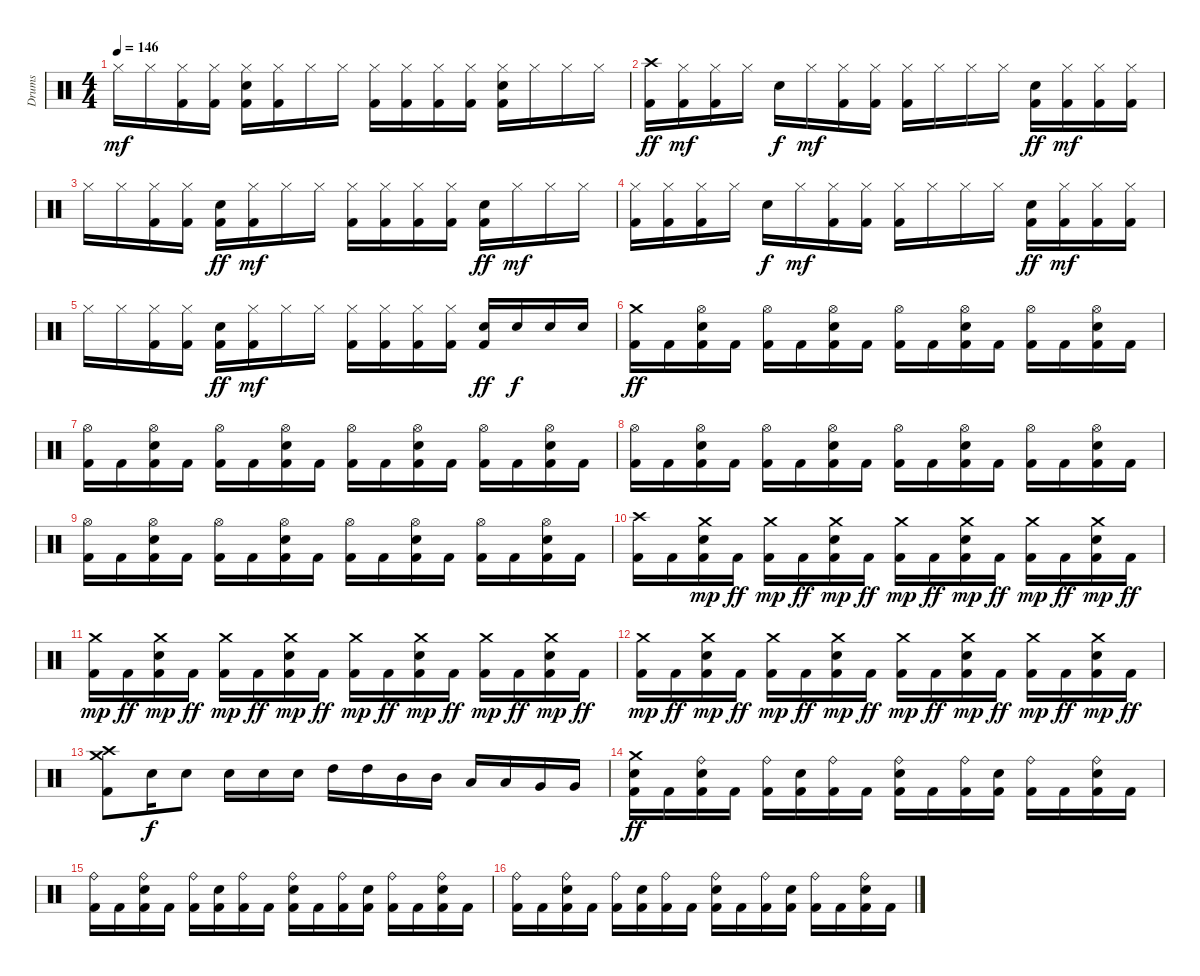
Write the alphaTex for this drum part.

\track ("Drums" "Drums") {instrument percussion}
\staff {score}
\articulation defaults
\ts (4 4)
\tempo 146
\clef neutral
\ks c "Hi-Hat (closed)".16{dy mf} "Hi-Hat (closed)".16
("Kick (hit) 2" "Hi-Hat (closed)").16 ("Kick (hit) 2" "Hi-Hat (closed)").16 ("Kick (hit) 2" "Electric Snare (hit)" "Hi-Hat (closed)").16 ("Kick (hit) 2" "Hi-Hat (closed)").16 "Hi-Hat (closed)".16 "Hi-Hat (closed)".16 ("Kick (hit) 2" "Hi-Hat (closed)").16 ("Kick (hit) 2" "Hi-Hat (closed)").16 ("Kick (hit) 2" "Hi-Hat (closed)").16 ("Kick (hit) 2" "Hi-Hat (closed)").16 ("Kick (hit) 2" "Electric Snare (hit)" "Hi-Hat (closed)").16 "Hi-Hat (closed)".16 "Hi-Hat (closed)".16 "Hi-Hat (closed)".16 |
("Kick (hit) 2" "Crash high (hit)").16{dy ff} ("Kick (hit) 2" "Hi-Hat (closed)").16{dy mf} ("Kick (hit) 2" "Hi-Hat (closed)").16 "Hi-Hat (closed)".16 "Electric Snare (hit)".16{dy f} "Hi-Hat (closed)".16{dy mf} ("Kick (hit) 2" "Hi-Hat (closed)").16 ("Kick (hit) 2" "Hi-Hat (closed)").16 ("Kick (hit) 2" "Hi-Hat (closed)").16 "Hi-Hat (closed)".16 "Hi-Hat (closed)".16 "Hi-Hat (closed)".16 ("Kick (hit) 2" "Electric Snare (hit)").16{dy ff} ("Kick (hit) 2" "Hi-Hat (closed)").16{dy mf} ("Kick (hit) 2" "Hi-Hat (closed)").16 ("Kick (hit) 2" "Hi-Hat (closed)").16 |
"Hi-Hat (closed)".16 "Hi-Hat (closed)".16 ("Kick (hit) 2" "Hi-Hat (closed)").16 ("Kick (hit) 2" "Hi-Hat (closed)").16 ("Kick (hit) 2" "Electric Snare (hit)").16{dy ff} ("Kick (hit) 2" "Hi-Hat (closed)").16{dy mf} "Hi-Hat (closed)".16 "Hi-Hat (closed)".16 ("Kick (hit) 2" "Hi-Hat (closed)").16 ("Kick (hit) 2" "Hi-Hat (closed)").16 ("Kick (hit) 2" "Hi-Hat (closed)").16 ("Kick (hit) 2" "Hi-Hat (closed)").16 ("Kick (hit) 2" "Electric Snare (hit)").16{dy ff} "Hi-Hat (closed)".16{dy mf} "Hi-Hat (closed)".16 "Hi-Hat (closed)".16 |
("Kick (hit) 2" "Hi-Hat (closed)").16 ("Kick (hit) 2" "Hi-Hat (closed)").16 ("Kick (hit) 2" "Hi-Hat (closed)").16 "Hi-Hat (closed)".16 "Electric Snare (hit)".16{dy f} "Hi-Hat (closed)".16{dy mf} ("Kick (hit) 2" "Hi-Hat (closed)").16 ("Kick (hit) 2" "Hi-Hat (closed)").16 ("Kick (hit) 2" "Hi-Hat (closed)").16 "Hi-Hat (closed)".16 "Hi-Hat (closed)".16 "Hi-Hat (closed)".16 ("Kick (hit) 2" "Electric Snare (hit)").16{dy ff} ("Kick (hit) 2" "Hi-Hat (closed)").16{dy mf} ("Kick (hit) 2" "Hi-Hat (closed)").16 ("Kick (hit) 2" "Hi-Hat (closed)").16 |
"Hi-Hat (closed)".16 "Hi-Hat (closed)".16 ("Kick (hit) 2" "Hi-Hat (closed)").16 ("Kick (hit) 2" "Hi-Hat (closed)").16 ("Kick (hit) 2" "Electric Snare (hit)").16{dy ff} ("Kick (hit) 2" "Hi-Hat (closed)").16{dy mf} "Hi-Hat (closed)".16 "Hi-Hat (closed)".16 ("Kick (hit) 2" "Hi-Hat (closed)").16 ("Kick (hit) 2" "Hi-Hat (closed)").16 ("Kick (hit) 2" "Hi-Hat (closed)").16 ("Kick (hit) 2" "Hi-Hat (closed)").16 ("Kick (hit) 2" "Electric Snare (hit)").16{dy ff} "Electric Snare (hit)".16{dy f} "Electric Snare (hit)".16 "Electric Snare (hit)".16 |
("Kick (hit) 2" "Crash medium (hit)").16{dy ff} "Kick (hit) 2".16 ("Kick (hit) 2" "Electric Snare (hit)" "Hi-Hat (open)").16 "Kick (hit) 2".16 ("Kick (hit) 2" "Hi-Hat (open)").16 "Kick (hit) 2".16 ("Kick (hit) 2" "Electric Snare (hit)" "Hi-Hat (open)").16 "Kick (hit) 2".16 ("Kick (hit) 2" "Hi-Hat (open)").16 "Kick (hit) 2".16 ("Kick (hit) 2" "Electric Snare (hit)" "Hi-Hat (open)").16 "Kick (hit) 2".16 ("Kick (hit) 2" "Hi-Hat (open)").16 "Kick (hit) 2".16 ("Kick (hit) 2" "Electric Snare (hit)" "Hi-Hat (open)").16 "Kick (hit) 2".16 |
("Kick (hit) 2" "Hi-Hat (open)").16 "Kick (hit) 2".16 ("Kick (hit) 2" "Electric Snare (hit)" "Hi-Hat (open)").16 "Kick (hit) 2".16 ("Kick (hit) 2" "Hi-Hat (open)").16 "Kick (hit) 2".16 ("Kick (hit) 2" "Electric Snare (hit)" "Hi-Hat (open)").16 "Kick (hit) 2".16 ("Kick (hit) 2" "Hi-Hat (open)").16 "Kick (hit) 2".16 ("Kick (hit) 2" "Electric Snare (hit)" "Hi-Hat (open)").16 "Kick (hit) 2".16 ("Kick (hit) 2" "Hi-Hat (open)").16 "Kick (hit) 2".16 ("Kick (hit) 2" "Electric Snare (hit)" "Hi-Hat (open)").16 "Kick (hit) 2".16 |
("Kick (hit) 2" "Hi-Hat (open)").16 "Kick (hit) 2".16 ("Kick (hit) 2" "Electric Snare (hit)" "Hi-Hat (open)").16 "Kick (hit) 2".16 ("Kick (hit) 2" "Hi-Hat (open)").16 "Kick (hit) 2".16 ("Kick (hit) 2" "Electric Snare (hit)" "Hi-Hat (open)").16 "Kick (hit) 2".16 ("Kick (hit) 2" "Hi-Hat (open)").16 "Kick (hit) 2".16 ("Kick (hit) 2" "Electric Snare (hit)" "Hi-Hat (open)").16 "Kick (hit) 2".16 ("Kick (hit) 2" "Hi-Hat (open)").16 "Kick (hit) 2".16 ("Kick (hit) 2" "Electric Snare (hit)" "Hi-Hat (open)").16 "Kick (hit) 2".16 |
("Kick (hit) 2" "Hi-Hat (open)").16 "Kick (hit) 2".16 ("Kick (hit) 2" "Electric Snare (hit)" "Hi-Hat (open)").16 "Kick (hit) 2".16 ("Kick (hit) 2" "Hi-Hat (open)").16 "Kick (hit) 2".16 ("Kick (hit) 2" "Electric Snare (hit)" "Hi-Hat (open)").16 "Kick (hit) 2".16 ("Kick (hit) 2" "Hi-Hat (open)").16 "Kick (hit) 2".16 ("Kick (hit) 2" "Electric Snare (hit)" "Hi-Hat (open)").16 "Kick (hit) 2".16 ("Kick (hit) 2" "Hi-Hat (open)").16 "Kick (hit) 2".16 ("Kick (hit) 2" "Electric Snare (hit)" "Hi-Hat (open)").16 "Kick (hit) 2".16 |
("Kick (hit) 2" "Crash high (hit)").16 "Kick (hit) 2".16 ("Kick (hit) 2" "Electric Snare (hit)" "Crash medium (hit)").16{dy mp} "Kick (hit) 2".16{dy ff} ("Kick (hit) 2" "Crash medium (hit)").16{dy mp} "Kick (hit) 2".16{dy ff} ("Kick (hit) 2" "Electric Snare (hit)" "Crash medium (hit)").16{dy mp} "Kick (hit) 2".16{dy ff} ("Kick (hit) 2" "Crash medium (hit)").16{dy mp} "Kick (hit) 2".16{dy ff} ("Kick (hit) 2" "Electric Snare (hit)" "Crash medium (hit)").16{dy mp} "Kick (hit) 2".16{dy ff} ("Kick (hit) 2" "Crash medium (hit)").16{dy mp} "Kick (hit) 2".16{dy ff} ("Kick (hit) 2" "Electric Snare (hit)" "Crash medium (hit)").16{dy mp} "Kick (hit) 2".16{dy ff} |
("Kick (hit) 2" "Crash medium (hit)").16{dy mp} "Kick (hit) 2".16{dy ff} ("Kick (hit) 2" "Electric Snare (hit)" "Crash medium (hit)").16{dy mp} "Kick (hit) 2".16{dy ff} ("Kick (hit) 2" "Crash medium (hit)").16{dy mp} "Kick (hit) 2".16{dy ff} ("Kick (hit) 2" "Electric Snare (hit)" "Crash medium (hit)").16{dy mp} "Kick (hit) 2".16{dy ff} ("Kick (hit) 2" "Crash medium (hit)").16{dy mp} "Kick (hit) 2".16{dy ff} ("Kick (hit) 2" "Electric Snare (hit)" "Crash medium (hit)").16{dy mp} "Kick (hit) 2".16{dy ff} ("Kick (hit) 2" "Crash medium (hit)").16{dy mp} "Kick (hit) 2".16{dy ff} ("Kick (hit) 2" "Electric Snare (hit)" "Crash medium (hit)").16{dy mp} "Kick (hit) 2".16{dy ff} |
("Kick (hit) 2" "Crash medium (hit)").16{dy mp} "Kick (hit) 2".16{dy ff} ("Kick (hit) 2" "Electric Snare (hit)" "Crash medium (hit)").16{dy mp} "Kick (hit) 2".16{dy ff} ("Kick (hit) 2" "Crash medium (hit)").16{dy mp} "Kick (hit) 2".16{dy ff} ("Kick (hit) 2" "Electric Snare (hit)" "Crash medium (hit)").16{dy mp} "Kick (hit) 2".16{dy ff} ("Kick (hit) 2" "Crash medium (hit)").16{dy mp} "Kick (hit) 2".16{dy ff} ("Kick (hit) 2" "Electric Snare (hit)" "Crash medium (hit)").16{dy mp} "Kick (hit) 2".16{dy ff} ("Kick (hit) 2" "Crash medium (hit)").16{dy mp} "Kick (hit) 2".16{dy ff} ("Kick (hit) 2" "Electric Snare (hit)" "Crash medium (hit)").16{dy mp} "Kick (hit) 2".16{dy ff} |
("Kick (hit) 2" "Crash medium (hit)" "Crash high (hit)").8 "Electric Snare (hit)".16{dy f} "Electric Snare (hit)".8 "Electric Snare (hit)".16 "Electric Snare (hit)".16 "Electric Snare (hit)".16 "High Tom (hit)".16 "High Tom (hit)".16 "Mid Tom (hit)".16 "Mid Tom (hit)".16 "Low Tom (hit)".16 "Low Tom (hit)".16 "Very Low Tom (hit)".16 "Very Low Tom (hit)".16 |
("Kick (hit) 2" "Electric Snare (hit)" "Crash medium (hit)").16{dy ff} "Kick (hit) 2".16 ("Kick (hit) 2" "Electric Snare (hit)" "Ride (bell)").16 "Kick (hit) 2".16 ("Kick (hit) 2" "Ride (bell)").16 ("Kick (hit) 2" "Electric Snare (hit)").16 ("Kick (hit) 2" "Ride (bell)").16 "Kick (hit) 2".16 ("Kick (hit) 2" "Electric Snare (hit)" "Ride (bell)").16 "Kick (hit) 2".16 ("Kick (hit) 2" "Ride (bell)").16 ("Kick (hit) 2" "Electric Snare (hit)").16 ("Kick (hit) 2" "Ride (bell)").16 "Kick (hit) 2".16 ("Kick (hit) 2" "Electric Snare (hit)" "Ride (bell)").16 "Kick (hit) 2".16 |
("Kick (hit) 2" "Ride (bell)").16 "Kick (hit) 2".16 ("Kick (hit) 2" "Electric Snare (hit)" "Ride (bell)").16 "Kick (hit) 2".16 ("Kick (hit) 2" "Ride (bell)").16 ("Kick (hit) 2" "Electric Snare (hit)").16 ("Kick (hit) 2" "Ride (bell)").16 "Kick (hit) 2".16 ("Kick (hit) 2" "Electric Snare (hit)" "Ride (bell)").16 "Kick (hit) 2".16 ("Kick (hit) 2" "Ride (bell)").16 ("Kick (hit) 2" "Electric Snare (hit)").16 ("Kick (hit) 2" "Ride (bell)").16 "Kick (hit) 2".16 ("Kick (hit) 2" "Electric Snare (hit)" "Ride (bell)").16 "Kick (hit) 2".16 |
("Kick (hit) 2" "Ride (bell)").16 "Kick (hit) 2".16 ("Kick (hit) 2" "Electric Snare (hit)" "Ride (bell)").16 "Kick (hit) 2".16 ("Kick (hit) 2" "Ride (bell)").16 ("Kick (hit) 2" "Electric Snare (hit)").16 ("Kick (hit) 2" "Ride (bell)").16 "Kick (hit) 2".16 ("Kick (hit) 2" "Electric Snare (hit)" "Ride (bell)").16 "Kick (hit) 2".16 ("Kick (hit) 2" "Ride (bell)").16 ("Kick (hit) 2" "Electric Snare (hit)").16 ("Kick (hit) 2" "Ride (bell)").16 "Kick (hit) 2".16 ("Kick (hit) 2" "Electric Snare (hit)" "Ride (bell)").16 "Kick (hit) 2".16
